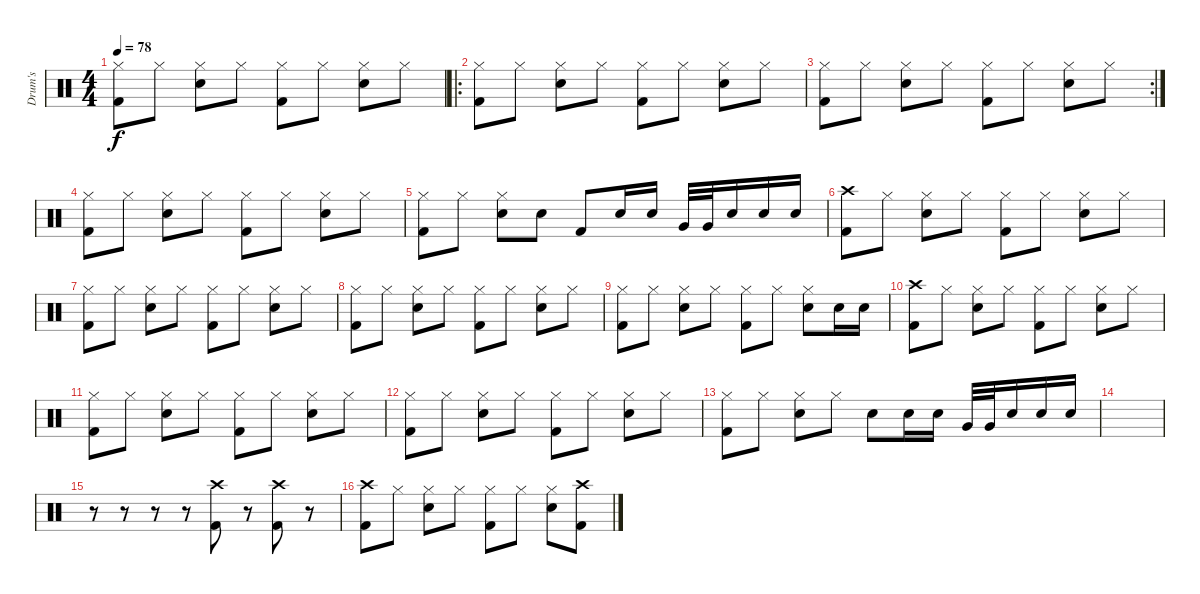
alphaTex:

\track ("Drum's " "Drum's ") {instrument percussion}
\staff {score}
\articulation defaults
\ts (4 4)
\tempo 78
\clef neutral
\ks c
("Hi-Hat (closed)" "Kick (hit) 2").8{dy f} "Hi-Hat (closed)".8 ("Hi-Hat (closed)" "Snare (hit) 2").8 "Hi-Hat (closed)".8 ("Hi-Hat (closed)" "Kick (hit) 2").8 "Hi-Hat (closed)".8 ("Hi-Hat (closed)" "Snare (hit) 2").8 "Hi-Hat (closed)".8 |
\ro
("Hi-Hat (closed)" "Kick (hit) 2").8 "Hi-Hat (closed)".8 ("Hi-Hat (closed)" "Snare (hit) 2").8 "Hi-Hat (closed)".8 ("Hi-Hat (closed)" "Kick (hit) 2").8 "Hi-Hat (closed)".8 ("Hi-Hat (closed)" "Snare (hit) 2").8 "Hi-Hat (closed)".8 |
\rc 2
("Hi-Hat (closed)" "Kick (hit) 2").8 "Hi-Hat (closed)".8 ("Hi-Hat (closed)" "Snare (hit) 2").8 "Hi-Hat (closed)".8 ("Hi-Hat (closed)" "Kick (hit) 2").8 "Hi-Hat (closed)".8 ("Hi-Hat (closed)" "Snare (hit) 2").8 "Hi-Hat (closed)".8 |
("Hi-Hat (closed)" "Kick (hit) 2").8 "Hi-Hat (closed)".8 ("Hi-Hat (closed)" "Snare (hit) 2").8 "Hi-Hat (closed)".8 ("Hi-Hat (closed)" "Kick (hit) 2").8 "Hi-Hat (closed)".8 ("Hi-Hat (closed)" "Snare (hit) 2").8 "Hi-Hat (closed)".8 |
("Hi-Hat (closed)" "Kick (hit) 2").8 "Hi-Hat (closed)".8 ("Hi-Hat (closed)" "Snare (hit) 2").8 "Snare (hit) 2".8 "Kick (hit) 2".8 "Snare (hit) 2".16 "Snare (hit) 2".16 "Very Low Tom (hit)".32 "Very Low Tom (hit)".32 "Snare (hit) 2".16 "Snare (hit) 2".16 "Snare (hit) 2".16 |
("Crash high (hit)" "Kick (hit) 2").8 "Hi-Hat (closed)".8 ("Hi-Hat (closed)" "Snare (hit) 2").8 "Hi-Hat (closed)".8 ("Hi-Hat (closed)" "Kick (hit) 2").8 "Hi-Hat (closed)".8 ("Hi-Hat (closed)" "Snare (hit) 2").8 "Hi-Hat (closed)".8 |
("Hi-Hat (closed)" "Kick (hit) 2").8 "Hi-Hat (closed)".8 ("Hi-Hat (closed)" "Snare (hit) 2").8 "Hi-Hat (closed)".8 ("Hi-Hat (closed)" "Kick (hit) 2").8 "Hi-Hat (closed)".8 ("Hi-Hat (closed)" "Snare (hit) 2").8 "Hi-Hat (closed)".8 |
("Hi-Hat (closed)" "Kick (hit) 2").8 "Hi-Hat (closed)".8 ("Hi-Hat (closed)" "Snare (hit) 2").8 "Hi-Hat (closed)".8 ("Hi-Hat (closed)" "Kick (hit) 2").8 "Hi-Hat (closed)".8 ("Hi-Hat (closed)" "Snare (hit) 2").8 "Hi-Hat (closed)".8 |
("Hi-Hat (closed)" "Kick (hit) 2").8 "Hi-Hat (closed)".8 ("Hi-Hat (closed)" "Snare (hit) 2").8 "Hi-Hat (closed)".8 ("Hi-Hat (closed)" "Kick (hit) 2").8 "Hi-Hat (closed)".8 ("Hi-Hat (closed)" "Snare (hit) 2").8 "Snare (hit) 2".16 "Snare (hit) 2".16 |
("Crash high (hit)" "Kick (hit) 2").8 "Hi-Hat (closed)".8 ("Hi-Hat (closed)" "Snare (hit) 2").8 "Hi-Hat (closed)".8 ("Hi-Hat (closed)" "Kick (hit) 2").8 "Hi-Hat (closed)".8 ("Hi-Hat (closed)" "Snare (hit) 2").8 "Hi-Hat (closed)".8 |
("Hi-Hat (closed)" "Kick (hit) 2").8 "Hi-Hat (closed)".8 ("Hi-Hat (closed)" "Snare (hit) 2").8 "Hi-Hat (closed)".8 ("Hi-Hat (closed)" "Kick (hit) 2").8 "Hi-Hat (closed)".8 ("Hi-Hat (closed)" "Snare (hit) 2").8 "Hi-Hat (closed)".8 |
("Hi-Hat (closed)" "Kick (hit) 2").8 "Hi-Hat (closed)".8 ("Hi-Hat (closed)" "Snare (hit) 2").8 "Hi-Hat (closed)".8 ("Hi-Hat (closed)" "Kick (hit) 2").8 "Hi-Hat (closed)".8 ("Hi-Hat (closed)" "Snare (hit) 2").8 "Hi-Hat (closed)".8 |
("Hi-Hat (closed)" "Kick (hit) 2").8 "Hi-Hat (closed)".8 ("Hi-Hat (closed)" "Snare (hit) 2").8 "Hi-Hat (closed)".8 "Snare (hit) 2".8 "Snare (hit) 2".16 "Snare (hit) 2".16 "Very Low Tom (hit)".32 "Very Low Tom (hit)".32 "Snare (hit) 2".16 "Snare (hit) 2".16 "Snare (hit) 2".16 |
|
r.8 r.8 r.8 r.8 ("Crash high (hit)" "Kick (hit) 2").8 r.8 ("Crash high (hit)" "Kick (hit) 2").8 r.8 |
("Crash high (hit)" "Kick (hit) 2").8 "Hi-Hat (closed)".8 ("Hi-Hat (closed)" "Snare (hit) 2").8 "Hi-Hat (closed)".8 ("Hi-Hat (closed)" "Kick (hit) 2").8 "Hi-Hat (closed)".8 ("Hi-Hat (closed)" "Snare (hit) 2").8 ("Crash high (hit)" "Kick (hit) 2").8
